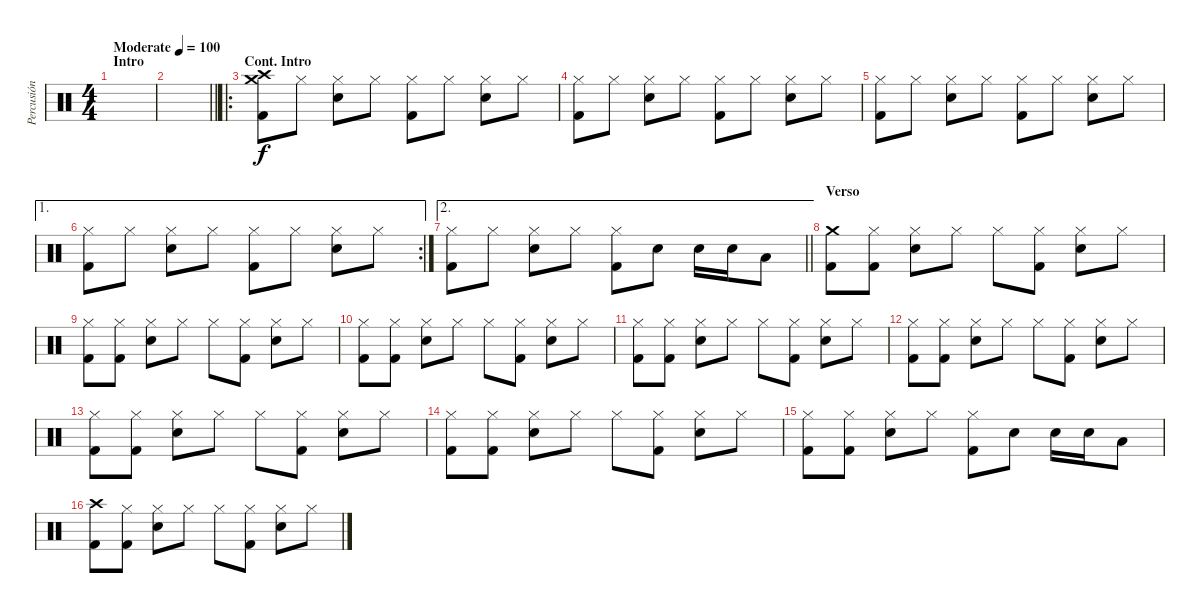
\track ("Percusión" "Percusión") {instrument percussion}
\staff {score}
\articulation defaults
\ts (4 4)
\section ("" "Intro")
\tempo (100 "Moderate")
\clef neutral
\ks c
|
\barLineRight lightlight
|
\ro
\section ("" "Cont. Intro")
("Crash medium (hit)" "Crash high (hit)" "Kick (hit) 2").8 "Hi-Hat (closed)".8 ("Hi-Hat (closed)" "Snare (hit) 2").8 "Hi-Hat (closed)".8 ("Hi-Hat (closed)" "Kick (hit) 2").8 "Hi-Hat (closed)".8 ("Hi-Hat (closed)" "Snare (hit) 2").8 "Hi-Hat (closed)".8 |
("Hi-Hat (closed)" "Kick (hit) 2").8 "Hi-Hat (closed)".8 ("Hi-Hat (closed)" "Snare (hit) 2").8 "Hi-Hat (closed)".8 ("Hi-Hat (closed)" "Kick (hit) 2").8 "Hi-Hat (closed)".8 ("Hi-Hat (closed)" "Snare (hit) 2").8 "Hi-Hat (closed)".8 |
("Hi-Hat (closed)" "Kick (hit) 2").8 "Hi-Hat (closed)".8 ("Hi-Hat (closed)" "Snare (hit) 2").8 "Hi-Hat (closed)".8 ("Hi-Hat (closed)" "Kick (hit) 2").8 "Hi-Hat (closed)".8 ("Hi-Hat (closed)" "Snare (hit) 2").8 "Hi-Hat (closed)".8 |
\ae 1
\rc 2
("Hi-Hat (closed)" "Kick (hit) 2").8 "Hi-Hat (closed)".8 ("Hi-Hat (closed)" "Snare (hit) 2").8 "Hi-Hat (closed)".8 ("Hi-Hat (closed)" "Kick (hit) 2").8 "Hi-Hat (closed)".8 ("Hi-Hat (closed)" "Snare (hit) 2").8 "Hi-Hat (closed)".8 |
\ae 2
\barLineRight lightlight
("Hi-Hat (closed)" "Kick (hit) 2").8 "Hi-Hat (closed)".8 ("Hi-Hat (closed)" "Snare (hit) 2").8 "Hi-Hat (closed)".8 ("Hi-Hat (closed)" "Kick (hit) 2").8 "Snare (hit) 2".8 "Snare (hit) 2".16 "Snare (hit) 2".16 "Low Tom (hit)".8 |
\section ("" "Verso")
("Crash medium (hit)" "Kick (hit) 2").8 ("Hi-Hat (closed)" "Kick (hit) 2").8 ("Hi-Hat (closed)" "Snare (hit) 2").8 "Hi-Hat (closed)".8 "Hi-Hat (closed)".8 ("Hi-Hat (closed)" "Kick (hit) 2").8 ("Hi-Hat (closed)" "Snare (hit) 2").8 "Hi-Hat (closed)".8 |
("Hi-Hat (closed)" "Kick (hit) 2").8 ("Hi-Hat (closed)" "Kick (hit) 2").8 ("Hi-Hat (closed)" "Snare (hit) 2").8 "Hi-Hat (closed)".8 "Hi-Hat (closed)".8 ("Hi-Hat (closed)" "Kick (hit) 2").8 ("Hi-Hat (closed)" "Snare (hit) 2").8 "Hi-Hat (closed)".8 |
("Hi-Hat (closed)" "Kick (hit) 2").8 ("Hi-Hat (closed)" "Kick (hit) 2").8 ("Hi-Hat (closed)" "Snare (hit) 2").8 "Hi-Hat (closed)".8 "Hi-Hat (closed)".8 ("Hi-Hat (closed)" "Kick (hit) 2").8 ("Hi-Hat (closed)" "Snare (hit) 2").8 "Hi-Hat (closed)".8 |
("Hi-Hat (closed)" "Kick (hit) 2").8 ("Hi-Hat (closed)" "Kick (hit) 2").8 ("Hi-Hat (closed)" "Snare (hit) 2").8 "Hi-Hat (closed)".8 "Hi-Hat (closed)".8 ("Hi-Hat (closed)" "Kick (hit) 2").8 ("Hi-Hat (closed)" "Snare (hit) 2").8 "Hi-Hat (closed)".8 |
("Hi-Hat (closed)" "Kick (hit) 2").8 ("Hi-Hat (closed)" "Kick (hit) 2").8 ("Hi-Hat (closed)" "Snare (hit) 2").8 "Hi-Hat (closed)".8 "Hi-Hat (closed)".8 ("Hi-Hat (closed)" "Kick (hit) 2").8 ("Hi-Hat (closed)" "Snare (hit) 2").8 "Hi-Hat (closed)".8 |
("Hi-Hat (closed)" "Kick (hit) 2").8 ("Hi-Hat (closed)" "Kick (hit) 2").8 ("Hi-Hat (closed)" "Snare (hit) 2").8 "Hi-Hat (closed)".8 "Hi-Hat (closed)".8 ("Hi-Hat (closed)" "Kick (hit) 2").8 ("Hi-Hat (closed)" "Snare (hit) 2").8 "Hi-Hat (closed)".8 |
("Hi-Hat (closed)" "Kick (hit) 2").8 ("Hi-Hat (closed)" "Kick (hit) 2").8 ("Hi-Hat (closed)" "Snare (hit) 2").8 "Hi-Hat (closed)".8 "Hi-Hat (closed)".8 ("Hi-Hat (closed)" "Kick (hit) 2").8 ("Hi-Hat (closed)" "Snare (hit) 2").8 "Hi-Hat (closed)".8 |
("Hi-Hat (closed)" "Kick (hit) 2").8 ("Hi-Hat (closed)" "Kick (hit) 2").8 ("Hi-Hat (closed)" "Snare (hit) 2").8 "Hi-Hat (closed)".8 ("Hi-Hat (closed)" "Kick (hit) 2").8 "Snare (hit) 2".8 "Snare (hit) 2".16 "Snare (hit) 2".16 "Low Tom (hit)".8 |
("Crash high (hit)" "Kick (hit) 2").8 ("Hi-Hat (closed)" "Kick (hit) 2").8 ("Hi-Hat (closed)" "Snare (hit) 2").8 "Hi-Hat (closed)".8 "Hi-Hat (closed)".8 ("Hi-Hat (closed)" "Kick (hit) 2").8 ("Hi-Hat (closed)" "Snare (hit) 2").8 "Hi-Hat (closed)".8
